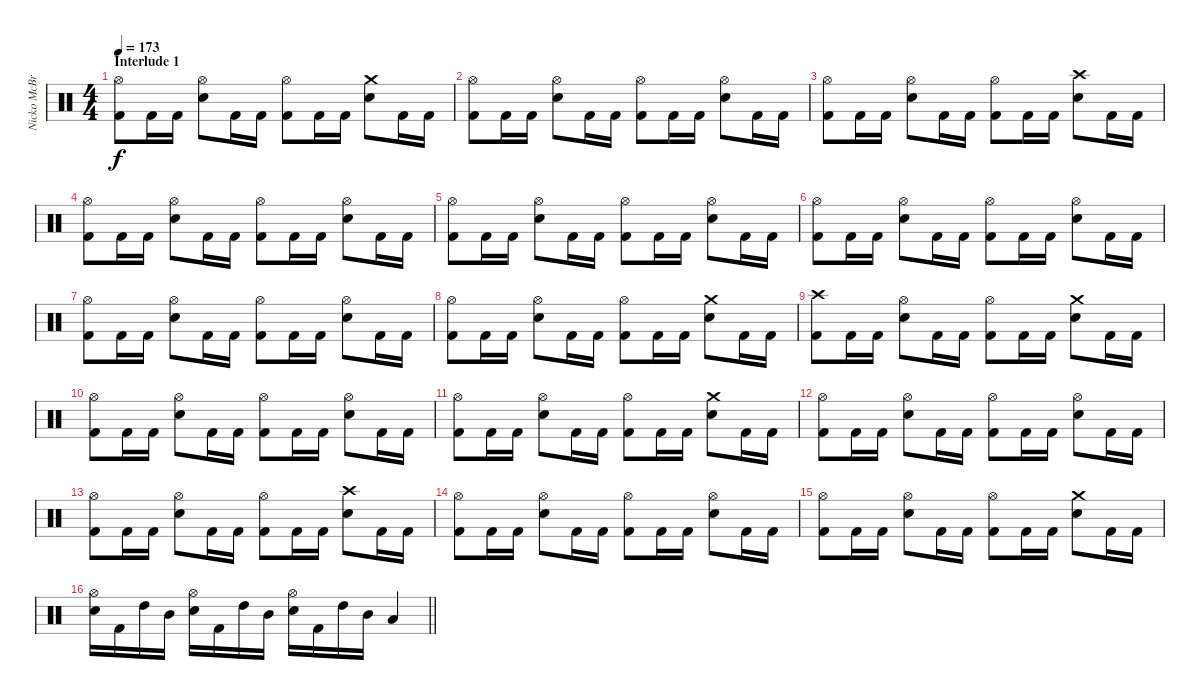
\track ("Nicko McBrain" "Nicko McBr") {instrument percussion}
\staff {score}
\articulation defaults
\ts (4 4)
\section ("" "Interlude 1")
\tempo 173
\clef neutral
\ks c
("Hi-Hat (open)" "Kick (hit) 2").8{dy f} "Kick (hit) 2".16 "Kick (hit) 2".16 ("Hi-Hat (open)" "Electric Snare (hit)").8 "Kick (hit) 2".16 "Kick (hit) 2".16 ("Hi-Hat (open)" "Kick (hit) 2").8 "Kick (hit) 2".16 "Kick (hit) 2".16 ("Crash medium (hit)" "Electric Snare (hit)").8 "Kick (hit) 2".16 "Kick (hit) 2".16 |
("Hi-Hat (open)" "Kick (hit) 2").8 "Kick (hit) 2".16 "Kick (hit) 2".16 ("Hi-Hat (open)" "Electric Snare (hit)").8 "Kick (hit) 2".16 "Kick (hit) 2".16 ("Hi-Hat (open)" "Kick (hit) 2").8 "Kick (hit) 2".16 "Kick (hit) 2".16 ("Hi-Hat (open)" "Electric Snare (hit)").8 "Kick (hit) 2".16 "Kick (hit) 2".16 |
("Hi-Hat (open)" "Kick (hit) 2").8 "Kick (hit) 2".16 "Kick (hit) 2".16 ("Hi-Hat (open)" "Electric Snare (hit)").8 "Kick (hit) 2".16 "Kick (hit) 2".16 ("Hi-Hat (open)" "Kick (hit) 2").8 "Kick (hit) 2".16 "Kick (hit) 2".16 ("Crash high (hit)" "Electric Snare (hit)").8 "Kick (hit) 2".16 "Kick (hit) 2".16 |
("Hi-Hat (open)" "Kick (hit) 2").8 "Kick (hit) 2".16 "Kick (hit) 2".16 ("Hi-Hat (open)" "Electric Snare (hit)").8 "Kick (hit) 2".16 "Kick (hit) 2".16 ("Hi-Hat (open)" "Kick (hit) 2").8 "Kick (hit) 2".16 "Kick (hit) 2".16 ("Hi-Hat (open)" "Electric Snare (hit)").8 "Kick (hit) 2".16 "Kick (hit) 2".16 |
("Hi-Hat (open)" "Kick (hit) 2").8 "Kick (hit) 2".16 "Kick (hit) 2".16 ("Hi-Hat (open)" "Electric Snare (hit)").8 "Kick (hit) 2".16 "Kick (hit) 2".16 ("Hi-Hat (open)" "Kick (hit) 2").8 "Kick (hit) 2".16 "Kick (hit) 2".16 ("Hi-Hat (open)" "Electric Snare (hit)").8 "Kick (hit) 2".16 "Kick (hit) 2".16 |
("Hi-Hat (open)" "Kick (hit) 2").8 "Kick (hit) 2".16 "Kick (hit) 2".16 ("Hi-Hat (open)" "Electric Snare (hit)").8 "Kick (hit) 2".16 "Kick (hit) 2".16 ("Hi-Hat (open)" "Kick (hit) 2").8 "Kick (hit) 2".16 "Kick (hit) 2".16 ("Hi-Hat (open)" "Electric Snare (hit)").8 "Kick (hit) 2".16 "Kick (hit) 2".16 |
("Hi-Hat (open)" "Kick (hit) 2").8 "Kick (hit) 2".16 "Kick (hit) 2".16 ("Hi-Hat (open)" "Electric Snare (hit)").8 "Kick (hit) 2".16 "Kick (hit) 2".16 ("Hi-Hat (open)" "Kick (hit) 2").8 "Kick (hit) 2".16 "Kick (hit) 2".16 ("Hi-Hat (open)" "Electric Snare (hit)").8 "Kick (hit) 2".16 "Kick (hit) 2".16 |
("Hi-Hat (open)" "Kick (hit) 2").8 "Kick (hit) 2".16 "Kick (hit) 2".16 ("Hi-Hat (open)" "Electric Snare (hit)").8 "Kick (hit) 2".16 "Kick (hit) 2".16 ("Hi-Hat (open)" "Kick (hit) 2").8 "Kick (hit) 2".16 "Kick (hit) 2".16 ("Crash medium (hit)" "Electric Snare (hit)").8 "Kick (hit) 2".16 "Kick (hit) 2".16 |
("Crash high (hit)" "Kick (hit) 2").8 "Kick (hit) 2".16 "Kick (hit) 2".16 ("Hi-Hat (open)" "Electric Snare (hit)").8 "Kick (hit) 2".16 "Kick (hit) 2".16 ("Hi-Hat (open)" "Kick (hit) 2").8 "Kick (hit) 2".16 "Kick (hit) 2".16 ("Crash medium (hit)" "Electric Snare (hit)").8 "Kick (hit) 2".16 "Kick (hit) 2".16 |
("Hi-Hat (open)" "Kick (hit) 2").8 "Kick (hit) 2".16 "Kick (hit) 2".16 ("Hi-Hat (open)" "Electric Snare (hit)").8 "Kick (hit) 2".16 "Kick (hit) 2".16 ("Hi-Hat (open)" "Kick (hit) 2").8 "Kick (hit) 2".16 "Kick (hit) 2".16 ("Hi-Hat (open)" "Electric Snare (hit)").8 "Kick (hit) 2".16 "Kick (hit) 2".16 |
("Hi-Hat (open)" "Kick (hit) 2").8 "Kick (hit) 2".16 "Kick (hit) 2".16 ("Hi-Hat (open)" "Electric Snare (hit)").8 "Kick (hit) 2".16 "Kick (hit) 2".16 ("Hi-Hat (open)" "Kick (hit) 2").8 "Kick (hit) 2".16 "Kick (hit) 2".16 ("Crash medium (hit)" "Electric Snare (hit)").8 "Kick (hit) 2".16 "Kick (hit) 2".16 |
("Hi-Hat (open)" "Kick (hit) 2").8 "Kick (hit) 2".16 "Kick (hit) 2".16 ("Hi-Hat (open)" "Electric Snare (hit)").8 "Kick (hit) 2".16 "Kick (hit) 2".16 ("Hi-Hat (open)" "Kick (hit) 2").8 "Kick (hit) 2".16 "Kick (hit) 2".16 ("Hi-Hat (open)" "Electric Snare (hit)").8 "Kick (hit) 2".16 "Kick (hit) 2".16 |
("Hi-Hat (open)" "Kick (hit) 2").8 "Kick (hit) 2".16 "Kick (hit) 2".16 ("Hi-Hat (open)" "Electric Snare (hit)").8 "Kick (hit) 2".16 "Kick (hit) 2".16 ("Hi-Hat (open)" "Kick (hit) 2").8 "Kick (hit) 2".16 "Kick (hit) 2".16 ("Crash high (hit)" "Electric Snare (hit)").8 "Kick (hit) 2".16 "Kick (hit) 2".16 |
("Hi-Hat (open)" "Kick (hit) 2").8 "Kick (hit) 2".16 "Kick (hit) 2".16 ("Hi-Hat (open)" "Electric Snare (hit)").8 "Kick (hit) 2".16 "Kick (hit) 2".16 ("Hi-Hat (open)" "Kick (hit) 2").8 "Kick (hit) 2".16 "Kick (hit) 2".16 ("Hi-Hat (open)" "Electric Snare (hit)").8 "Kick (hit) 2".16 "Kick (hit) 2".16 |
("Hi-Hat (open)" "Kick (hit) 2").8 "Kick (hit) 2".16 "Kick (hit) 2".16 ("Hi-Hat (open)" "Electric Snare (hit)").8 "Kick (hit) 2".16 "Kick (hit) 2".16 ("Hi-Hat (open)" "Kick (hit) 2").8 "Kick (hit) 2".16 "Kick (hit) 2".16 ("Crash medium (hit)" "Electric Snare (hit)").8 "Kick (hit) 2".16 "Kick (hit) 2".16 |
\barLineRight lightlight
("Hi-Hat (open)" "Electric Snare (hit)").16 "Kick (hit) 2".16 "High Tom (hit)".16 "Mid Tom (hit)".16 ("Hi-Hat (open)" "Electric Snare (hit)").16 "Kick (hit) 2".16 "High Tom (hit)".16 "Mid Tom (hit)".16 ("Hi-Hat (open)" "Electric Snare (hit)").16 "Kick (hit) 2".16 "High Tom (hit)".16 "Mid Tom (hit)".16 "Low Tom (hit)".4
